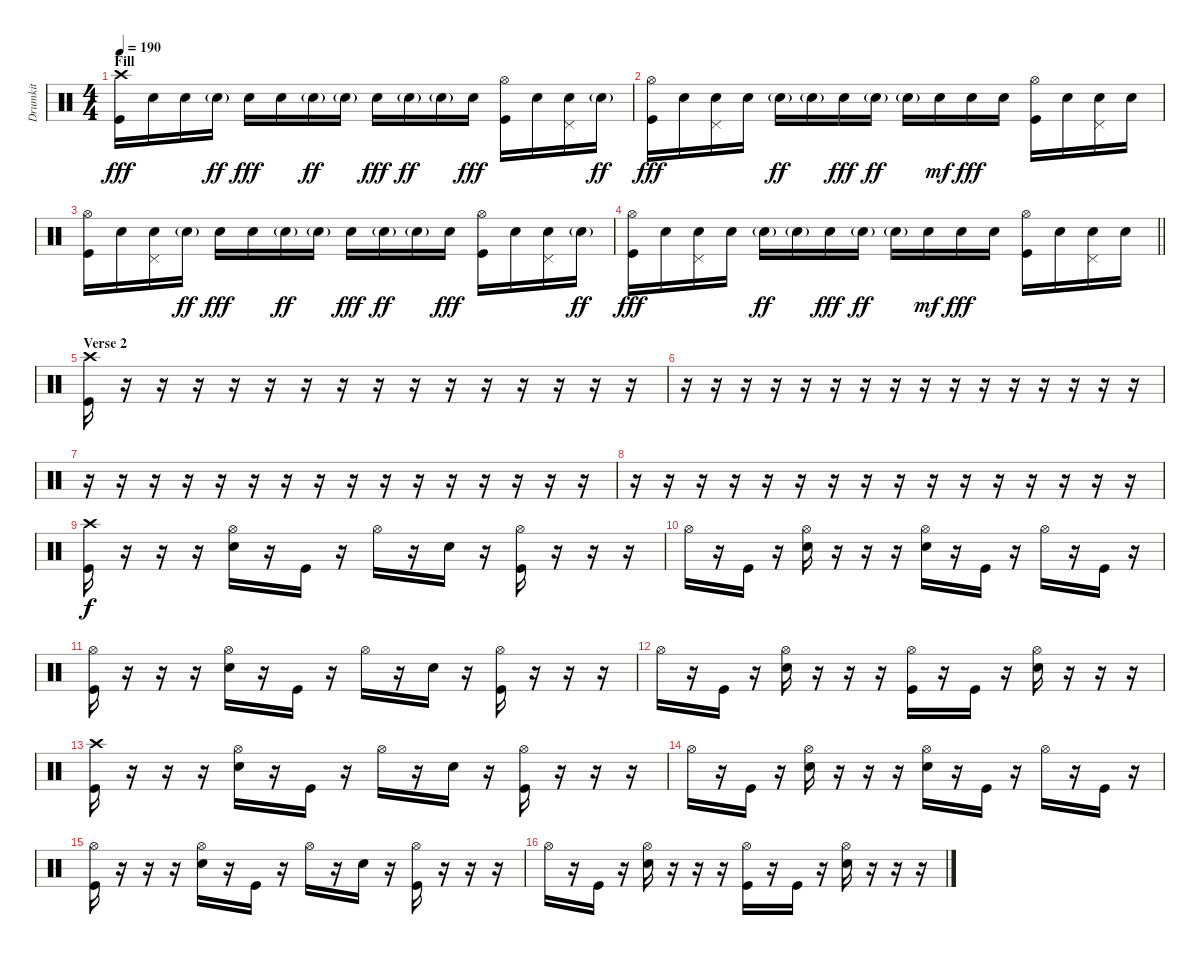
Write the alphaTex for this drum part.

\track ("Drumkit" "Drumkit") {instrument percussion}
\staff {score}
\articulation defaults
\ts (4 4)
\section ("" "Fill")
\tempo 190
\clef neutral
\ks c
("Crash high (hit)" "Kick (hit)").16{dy fff} "Snare (hit) 2".16 "Snare (hit) 2".16 "Snare (hit) 2"{g}.16{dy ff} "Snare (hit) 2".16{dy fff} "Snare (hit) 2".16 "Snare (hit) 2"{g}.16{dy ff} "Snare (hit) 2"{g}.16 "Snare (hit) 2".16{dy fff} "Snare (hit) 2"{g}.16{dy ff} "Snare (hit) 2"{g}.16 "Snare (hit) 2".16{dy fff} ("Hi-Hat (open)" "Kick (hit)").16 "Snare (hit) 2".16 ("Pedal Hi-Hat (hit)" "Snare (hit) 2").16 "Snare (hit) 2"{g}.16{dy ff} |
("Hi-Hat (open)" "Kick (hit)").16{dy fff} "Snare (hit) 2".16 ("Pedal Hi-Hat (hit)" "Snare (hit) 2").16 "Snare (hit) 2".16 "Snare (hit) 2"{g}.16{dy ff} "Snare (hit) 2"{g}.16 "Snare (hit) 2".16{dy fff} "Snare (hit) 2"{g}.16{dy ff} "Snare (hit) 2"{g}.16 "Snare (hit) 2".16{dy mf} "Snare (hit) 2".16{dy fff} "Snare (hit) 2".16 ("Hi-Hat (open)" "Kick (hit)").16 "Snare (hit) 2".16 ("Pedal Hi-Hat (hit)" "Snare (hit) 2").16 "Snare (hit) 2".16 |
("Hi-Hat (open)" "Kick (hit)").16 "Snare (hit) 2".16 ("Pedal Hi-Hat (hit)" "Snare (hit) 2").16 "Snare (hit) 2"{g}.16{dy ff} "Snare (hit) 2".16{dy fff} "Snare (hit) 2".16 "Snare (hit) 2"{g}.16{dy ff} "Snare (hit) 2"{g}.16 "Snare (hit) 2".16{dy fff} "Snare (hit) 2"{g}.16{dy ff} "Snare (hit) 2"{g}.16 "Snare (hit) 2".16{dy fff} ("Hi-Hat (open)" "Kick (hit)").16 "Snare (hit) 2".16 ("Pedal Hi-Hat (hit)" "Snare (hit) 2").16 "Snare (hit) 2"{g}.16{dy ff} |
\barLineRight lightlight
("Hi-Hat (open)" "Kick (hit)").16{dy fff} "Snare (hit) 2".16 ("Pedal Hi-Hat (hit)" "Snare (hit) 2").16 "Snare (hit) 2".16 "Snare (hit) 2"{g}.16{dy ff} "Snare (hit) 2"{g}.16 "Snare (hit) 2".16{dy fff} "Snare (hit) 2"{g}.16{dy ff} "Snare (hit) 2"{g}.16 "Snare (hit) 2".16{dy mf} "Snare (hit) 2".16{dy fff} "Snare (hit) 2".16 ("Hi-Hat (open)" "Kick (hit)").16 "Snare (hit) 2".16 ("Pedal Hi-Hat (hit)" "Snare (hit) 2").16 "Snare (hit) 2".16 |
\section ("" "Verse 2")
("Crash high (hit)" "Kick (hit)").16 r.16 r.16 r.16 r.16 r.16 r.16 r.16 r.16 r.16 r.16 r.16 r.16 r.16 r.16 r.16 |
r.16 r.16 r.16 r.16 r.16 r.16 r.16 r.16 r.16 r.16 r.16 r.16 r.16 r.16 r.16 r.16 |
r.16 r.16 r.16 r.16 r.16 r.16 r.16 r.16 r.16 r.16 r.16 r.16 r.16 r.16 r.16 r.16 |
r.16 r.16 r.16 r.16 r.16 r.16 r.16 r.16 r.16 r.16 r.16 r.16 r.16 r.16 r.16 r.16 |
("Crash high (hit)" "Kick (hit)").16{dy f} r.16 r.16 r.16 ("Hi-Hat (open)" "Snare (hit) 2").16 r.16 "Kick (hit)".16 r.16 "Hi-Hat (open)".16 r.16 "Snare (hit) 2".16 r.16 ("Hi-Hat (open)" "Kick (hit)").16 r.16 r.16 r.16 |
"Hi-Hat (open)".16 r.16 "Kick (hit)".16 r.16 ("Hi-Hat (open)" "Snare (hit) 2").16 r.16 r.16 r.16 ("Hi-Hat (open)" "Snare (hit) 2").16 r.16 "Kick (hit)".16 r.16 "Hi-Hat (open)".16 r.16 "Kick (hit)".16 r.16 |
("Hi-Hat (open)" "Kick (hit)").16 r.16 r.16 r.16 ("Hi-Hat (open)" "Snare (hit) 2").16 r.16 "Kick (hit)".16 r.16 "Hi-Hat (open)".16 r.16 "Snare (hit) 2".16 r.16 ("Hi-Hat (open)" "Kick (hit)").16 r.16 r.16 r.16 |
"Hi-Hat (open)".16 r.16 "Kick (hit)".16 r.16 ("Hi-Hat (open)" "Snare (hit) 2").16 r.16 r.16 r.16 ("Hi-Hat (open)" "Kick (hit)").16 r.16 "Kick (hit)".16 r.16 ("Hi-Hat (open)" "Snare (hit) 2").16 r.16 r.16 r.16 |
("Crash high (hit)" "Kick (hit)").16 r.16 r.16 r.16 ("Hi-Hat (open)" "Snare (hit) 2").16 r.16 "Kick (hit)".16 r.16 "Hi-Hat (open)".16 r.16 "Snare (hit) 2".16 r.16 ("Hi-Hat (open)" "Kick (hit)").16 r.16 r.16 r.16 |
"Hi-Hat (open)".16 r.16 "Kick (hit)".16 r.16 ("Hi-Hat (open)" "Snare (hit) 2").16 r.16 r.16 r.16 ("Hi-Hat (open)" "Snare (hit) 2").16 r.16 "Kick (hit)".16 r.16 "Hi-Hat (open)".16 r.16 "Kick (hit)".16 r.16 |
("Hi-Hat (open)" "Kick (hit)").16 r.16 r.16 r.16 ("Hi-Hat (open)" "Snare (hit) 2").16 r.16 "Kick (hit)".16 r.16 "Hi-Hat (open)".16 r.16 "Snare (hit) 2".16 r.16 ("Hi-Hat (open)" "Kick (hit)").16 r.16 r.16 r.16 |
"Hi-Hat (open)".16 r.16 "Kick (hit)".16 r.16 ("Hi-Hat (open)" "Snare (hit) 2").16 r.16 r.16 r.16 ("Hi-Hat (open)" "Kick (hit)").16 r.16 "Kick (hit)".16 r.16 ("Hi-Hat (open)" "Snare (hit) 2").16 r.16 r.16 r.16
